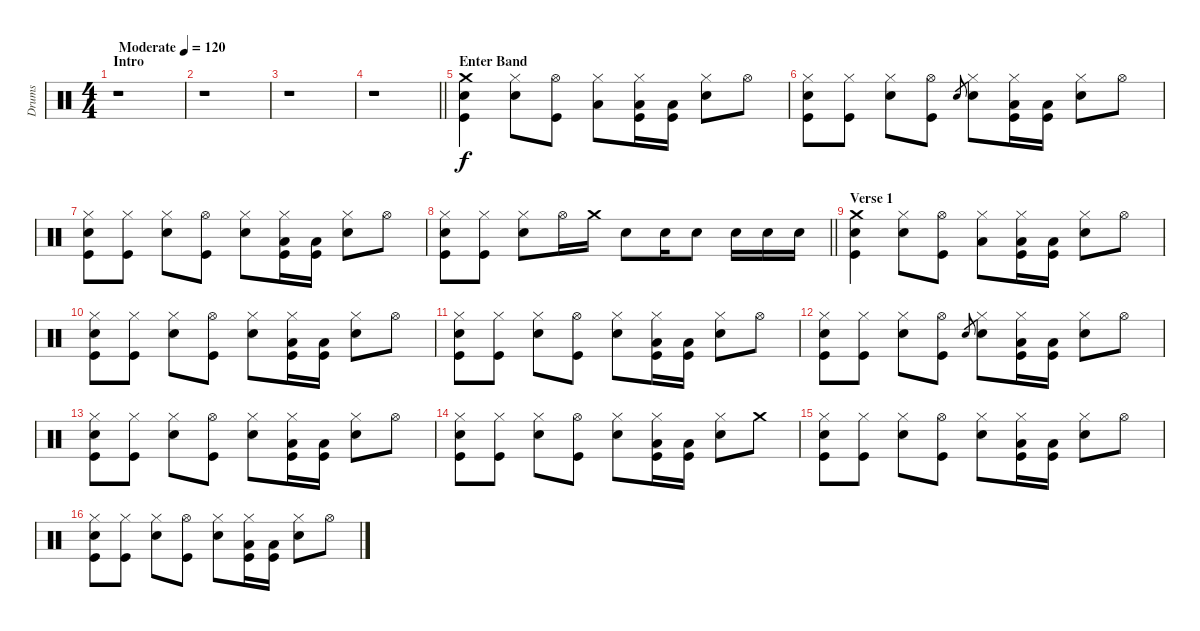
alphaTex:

\track ("Drums" "Drums") {instrument percussion}
\staff {score}
\articulation defaults
\ts (4 4)
\section ("" "Intro")
\tempo (120 "Moderate")
\clef neutral
\ks c
r.1{dy f} |
r.1 |
r.1 |
\barLineRight lightlight
r.1 |
\section ("" "Enter Band")
("Crash medium (hit)" "Snare (hit) 2" "Kick (hit)").4 ("Hi-Hat (closed)" "Snare (hit) 2").8 ("Hi-Hat (open)" "Kick (hit)").8 ("Hi-Hat (closed)" "Low Tom (hit)").8 ("Hi-Hat (closed)" "Low Tom (hit)" "Kick (hit)").16 ("Low Tom (hit)" "Kick (hit)").16 ("Hi-Hat (closed)" "Snare (hit) 2").8 "Hi-Hat (open)".8 |
("Hi-Hat (closed)" "Snare (hit) 2" "Kick (hit)").8 ("Hi-Hat (closed)" "Kick (hit)").8 ("Hi-Hat (closed)" "Snare (hit) 2").8 ("Hi-Hat (open)" "Kick (hit)").8 "Snare (hit) 2".8{gr} ("Hi-Hat (closed)" "Snare (hit) 2").8 ("Hi-Hat (closed)" "Low Tom (hit)" "Kick (hit)").16 ("Low Tom (hit)" "Kick (hit)").16 ("Hi-Hat (closed)" "Snare (hit) 2").8 "Hi-Hat (open)".8 |
("Hi-Hat (closed)" "Snare (hit) 2" "Kick (hit)").8 ("Hi-Hat (closed)" "Kick (hit)").8 ("Hi-Hat (closed)" "Snare (hit) 2").8 ("Hi-Hat (open)" "Kick (hit)").8 ("Hi-Hat (closed)" "Snare (hit) 2").8 ("Hi-Hat (closed)" "Low Tom (hit)" "Kick (hit)").16 ("Low Tom (hit)" "Kick (hit)").16 ("Hi-Hat (closed)" "Snare (hit) 2").8 "Hi-Hat (open)".8 |
\barLineRight lightlight
("Hi-Hat (closed)" "Snare (hit) 2" "Kick (hit)").8 ("Hi-Hat (closed)" "Kick (hit)").8 ("Hi-Hat (closed)" "Snare (hit) 2").8 "Hi-Hat (open)".16 "Crash medium (hit)".16 "Snare (hit) 2".8 "Snare (hit) 2".16 "Snare (hit) 2".8 "Snare (hit) 2".16 "Snare (hit) 2".16 "Snare (hit) 2".16 |
\section ("" "Verse 1")
("Crash medium (hit)" "Snare (hit) 2" "Kick (hit)").4 ("Hi-Hat (closed)" "Snare (hit) 2").8 ("Hi-Hat (open)" "Kick (hit)").8 ("Hi-Hat (closed)" "Low Tom (hit)").8 ("Hi-Hat (closed)" "Low Tom (hit)" "Kick (hit)").16 ("Low Tom (hit)" "Kick (hit)").16 ("Hi-Hat (closed)" "Snare (hit) 2").8 "Hi-Hat (open)".8 |
("Hi-Hat (closed)" "Snare (hit) 2" "Kick (hit)").8 ("Hi-Hat (closed)" "Kick (hit)").8 ("Hi-Hat (closed)" "Snare (hit) 2").8 ("Hi-Hat (open)" "Kick (hit)").8 ("Hi-Hat (closed)" "Snare (hit) 2").8 ("Hi-Hat (closed)" "Low Tom (hit)" "Kick (hit)").16 ("Low Tom (hit)" "Kick (hit)").16 ("Hi-Hat (closed)" "Snare (hit) 2").8 "Hi-Hat (open)".8 |
("Hi-Hat (closed)" "Snare (hit) 2" "Kick (hit)").8 ("Hi-Hat (closed)" "Kick (hit)").8 ("Hi-Hat (closed)" "Snare (hit) 2").8 ("Hi-Hat (open)" "Kick (hit)").8 ("Hi-Hat (closed)" "Snare (hit) 2").8 ("Hi-Hat (closed)" "Low Tom (hit)" "Kick (hit)").16 ("Low Tom (hit)" "Kick (hit)").16 ("Hi-Hat (closed)" "Snare (hit) 2").8 "Hi-Hat (open)".8 |
("Hi-Hat (closed)" "Snare (hit) 2" "Kick (hit)").8 ("Hi-Hat (closed)" "Kick (hit)").8 ("Hi-Hat (closed)" "Snare (hit) 2").8 ("Hi-Hat (open)" "Kick (hit)").8 "Snare (hit) 2".8{gr} ("Hi-Hat (closed)" "Snare (hit) 2").8 ("Hi-Hat (closed)" "Low Tom (hit)" "Kick (hit)").16 ("Low Tom (hit)" "Kick (hit)").16 ("Hi-Hat (closed)" "Snare (hit) 2").8 "Hi-Hat (open)".8 |
("Hi-Hat (closed)" "Snare (hit) 2" "Kick (hit)").8 ("Hi-Hat (closed)" "Kick (hit)").8 ("Hi-Hat (closed)" "Snare (hit) 2").8 ("Hi-Hat (open)" "Kick (hit)").8 ("Hi-Hat (closed)" "Snare (hit) 2").8 ("Hi-Hat (closed)" "Low Tom (hit)" "Kick (hit)").16 ("Low Tom (hit)" "Kick (hit)").16 ("Hi-Hat (closed)" "Snare (hit) 2").8 "Hi-Hat (open)".8 |
("Hi-Hat (closed)" "Snare (hit) 2" "Kick (hit)").8 ("Hi-Hat (closed)" "Kick (hit)").8 ("Hi-Hat (closed)" "Snare (hit) 2").8 ("Hi-Hat (open)" "Kick (hit)").8 ("Hi-Hat (closed)" "Snare (hit) 2").8 ("Hi-Hat (closed)" "Low Tom (hit)" "Kick (hit)").16 ("Low Tom (hit)" "Kick (hit)").16 ("Hi-Hat (closed)" "Snare (hit) 2").8 "Crash medium (hit)".8 |
("Hi-Hat (closed)" "Snare (hit) 2" "Kick (hit)").8 ("Hi-Hat (closed)" "Kick (hit)").8 ("Hi-Hat (closed)" "Snare (hit) 2").8 ("Hi-Hat (open)" "Kick (hit)").8 ("Hi-Hat (closed)" "Snare (hit) 2").8 ("Hi-Hat (closed)" "Low Tom (hit)" "Kick (hit)").16 ("Low Tom (hit)" "Kick (hit)").16 ("Hi-Hat (closed)" "Snare (hit) 2").8 "Hi-Hat (open)".8 |
("Hi-Hat (closed)" "Snare (hit) 2" "Kick (hit)").8 ("Hi-Hat (closed)" "Kick (hit)").8 ("Hi-Hat (closed)" "Snare (hit) 2").8 ("Hi-Hat (open)" "Kick (hit)").8 ("Hi-Hat (closed)" "Snare (hit) 2").8 ("Hi-Hat (closed)" "Low Tom (hit)" "Kick (hit)").16 ("Low Tom (hit)" "Kick (hit)").16 ("Hi-Hat (closed)" "Snare (hit) 2").8 "Hi-Hat (open)".8
